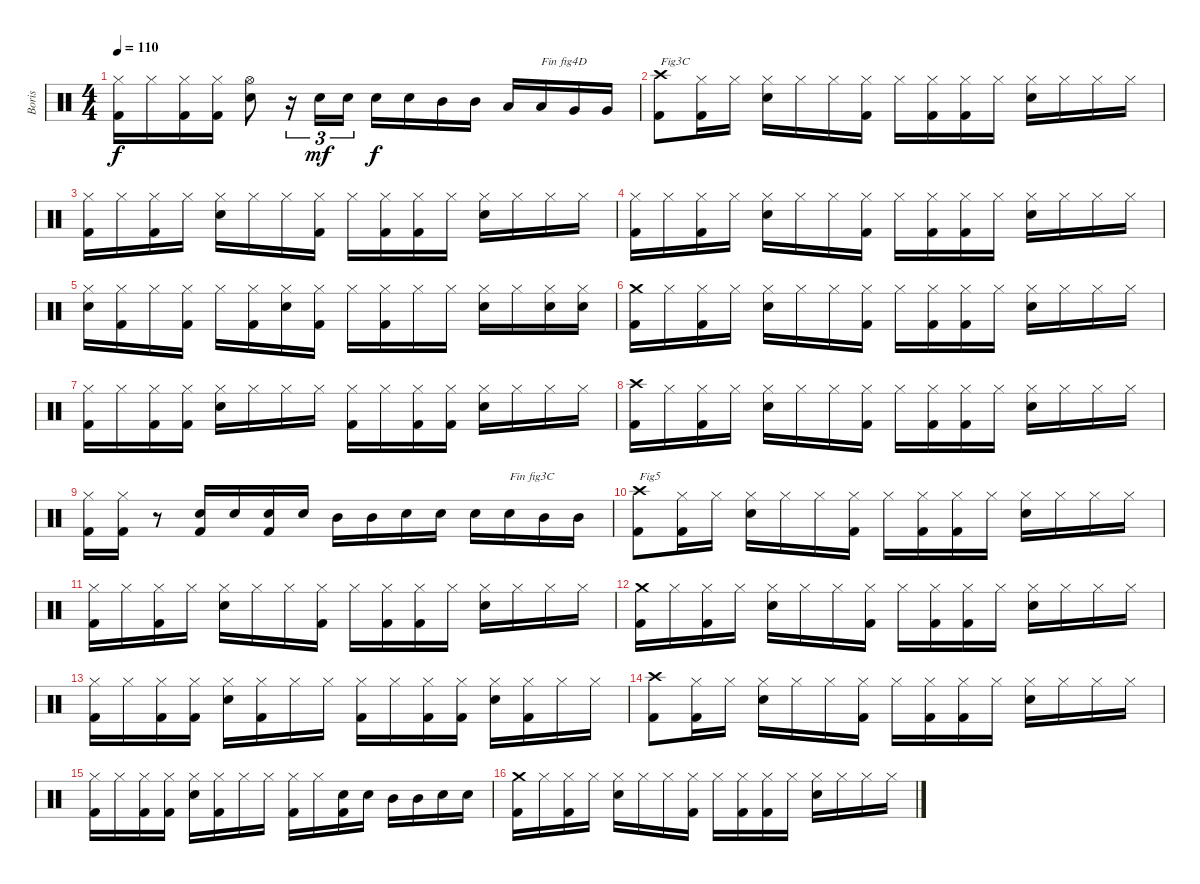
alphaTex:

\track ("Boris" "Boris") {instrument percussion}
\staff {score}
\articulation defaults
\ts (4 4)
\tempo 110
\clef neutral
\ks c
("Kick (hit) 2" "Hi-Hat (closed)").16{dy f} "Hi-Hat (closed)".16 ("Kick (hit) 2" "Hi-Hat (closed)").16 ("Kick (hit) 2" "Hi-Hat (closed)").16 ("Electric Snare (hit)" "Hi-Hat (open)").8 r.16{tu (3 2)} "Electric Snare (hit)".16{tu (3 2) dy mf} "Electric Snare (hit)".16{tu (3 2)} "Electric Snare (hit)".16{dy f} "Electric Snare (hit)".16 "Mid Tom (hit)".16 "Mid Tom (hit)".16 "Low Tom (hit)".16 "Low Tom (hit)".16{txt "Fin fig4D"} "Very Low Tom (hit)".16 "Very Low Tom (hit)".16 |
("Kick (hit) 2" "Crash high (hit)").8{txt "Fig3C"} ("Kick (hit) 2" "Hi-Hat (closed)").16 "Hi-Hat (closed)".16 ("Electric Snare (hit)" "Hi-Hat (closed)").16 "Hi-Hat (closed)".16 "Hi-Hat (closed)".16 ("Kick (hit) 2" "Hi-Hat (closed)").16 "Hi-Hat (closed)".16 ("Kick (hit) 2" "Hi-Hat (closed)").16 ("Kick (hit) 2" "Hi-Hat (closed)").16 "Hi-Hat (closed)".16 ("Electric Snare (hit)" "Hi-Hat (closed)").16 "Hi-Hat (closed)".16 "Hi-Hat (closed)".16 "Hi-Hat (closed)".16 |
("Kick (hit) 2" "Hi-Hat (closed)").16 "Hi-Hat (closed)".16 ("Kick (hit) 2" "Hi-Hat (closed)").16 "Hi-Hat (closed)".16 ("Electric Snare (hit)" "Hi-Hat (closed)").16 "Hi-Hat (closed)".16 "Hi-Hat (closed)".16 ("Kick (hit) 2" "Hi-Hat (closed)").16 "Hi-Hat (closed)".16 ("Kick (hit) 2" "Hi-Hat (closed)").16 ("Kick (hit) 2" "Hi-Hat (closed)").16 "Hi-Hat (closed)".16 ("Electric Snare (hit)" "Hi-Hat (closed)").16 "Hi-Hat (closed)".16 "Hi-Hat (closed)".16 "Hi-Hat (closed)".16 |
("Kick (hit) 2" "Hi-Hat (closed)").16 "Hi-Hat (closed)".16 ("Kick (hit) 2" "Hi-Hat (closed)").16 "Hi-Hat (closed)".16 ("Electric Snare (hit)" "Hi-Hat (closed)").16 "Hi-Hat (closed)".16 "Hi-Hat (closed)".16 ("Kick (hit) 2" "Hi-Hat (closed)").16 "Hi-Hat (closed)".16 ("Kick (hit) 2" "Hi-Hat (closed)").16 ("Kick (hit) 2" "Hi-Hat (closed)").16 "Hi-Hat (closed)".16 ("Electric Snare (hit)" "Hi-Hat (closed)").16 "Hi-Hat (closed)".16 "Hi-Hat (closed)".16 "Hi-Hat (closed)".16 |
("Electric Snare (hit)" "Hi-Hat (closed)").16 ("Kick (hit) 2" "Hi-Hat (closed)").16 "Hi-Hat (closed)".16 ("Kick (hit) 2" "Hi-Hat (closed)").16 "Hi-Hat (closed)".16 ("Kick (hit) 2" "Hi-Hat (closed)").16 ("Electric Snare (hit)" "Hi-Hat (closed)").16 ("Kick (hit) 2" "Hi-Hat (closed)").16 "Hi-Hat (closed)".16 ("Kick (hit) 2" "Hi-Hat (closed)").16 "Hi-Hat (closed)".16 "Hi-Hat (closed)".16 ("Electric Snare (hit)" "Hi-Hat (closed)").16 "Hi-Hat (closed)".16 ("Electric Snare (hit)" "Hi-Hat (closed)").16 ("Electric Snare (hit)" "Hi-Hat (closed)").16 |
("Kick (hit) 2" "Crash medium (hit)").16 "Hi-Hat (closed)".16 ("Kick (hit) 2" "Hi-Hat (closed)").16 "Hi-Hat (closed)".16 ("Electric Snare (hit)" "Hi-Hat (closed)").16 "Hi-Hat (closed)".16 "Hi-Hat (closed)".16 ("Kick (hit) 2" "Hi-Hat (closed)").16 "Hi-Hat (closed)".16 ("Kick (hit) 2" "Hi-Hat (closed)").16 ("Kick (hit) 2" "Hi-Hat (closed)").16 "Hi-Hat (closed)".16 ("Electric Snare (hit)" "Hi-Hat (closed)").16 "Hi-Hat (closed)".16 "Hi-Hat (closed)".16 "Hi-Hat (closed)".16 |
("Kick (hit) 2" "Hi-Hat (closed)").16 "Hi-Hat (closed)".16 ("Kick (hit) 2" "Hi-Hat (closed)").16 ("Kick (hit) 2" "Hi-Hat (closed)").16 ("Electric Snare (hit)" "Hi-Hat (closed)").16 "Hi-Hat (closed)".16 "Hi-Hat (closed)".16 "Hi-Hat (closed)".16 ("Kick (hit) 2" "Hi-Hat (closed)").16 "Hi-Hat (closed)".16 ("Kick (hit) 2" "Hi-Hat (closed)").16 ("Kick (hit) 2" "Hi-Hat (closed)").16 ("Electric Snare (hit)" "Hi-Hat (closed)").16 "Hi-Hat (closed)".16 "Hi-Hat (closed)".16 "Hi-Hat (closed)".16 |
("Kick (hit) 2" "Crash high (hit)").16 "Hi-Hat (closed)".16 ("Kick (hit) 2" "Hi-Hat (closed)").16 "Hi-Hat (closed)".16 ("Electric Snare (hit)" "Hi-Hat (closed)").16 "Hi-Hat (closed)".16 "Hi-Hat (closed)".16 ("Kick (hit) 2" "Hi-Hat (closed)").16 "Hi-Hat (closed)".16 ("Kick (hit) 2" "Hi-Hat (closed)").16 ("Kick (hit) 2" "Hi-Hat (closed)").16 "Hi-Hat (closed)".16 ("Electric Snare (hit)" "Hi-Hat (closed)").16 "Hi-Hat (closed)".16 "Hi-Hat (closed)".16 "Hi-Hat (closed)".16 |
("Kick (hit) 2" "Hi-Hat (closed)").16 ("Kick (hit) 2" "Hi-Hat (closed)").16 r.8 ("Kick (hit) 2" "Electric Snare (hit)").16 "Electric Snare (hit)".16 ("Kick (hit) 2" "Electric Snare (hit)").16 "Electric Snare (hit)".16 "Mid Tom (hit)".16 "Mid Tom (hit)".16 "Electric Snare (hit)".16 "Electric Snare (hit)".16 "Electric Snare (hit)".16 "Electric Snare (hit)".16{txt "Fin fig3C"} "Mid Tom (hit)".16 "Mid Tom (hit)".16 |
("Kick (hit) 2" "Crash high (hit)").8{txt "Fig5"} ("Kick (hit) 2" "Hi-Hat (closed)").16 "Hi-Hat (closed)".16 ("Electric Snare (hit)" "Hi-Hat (closed)").16 "Hi-Hat (closed)".16 "Hi-Hat (closed)".16 ("Kick (hit) 2" "Hi-Hat (closed)").16 "Hi-Hat (closed)".16 ("Kick (hit) 2" "Hi-Hat (closed)").16 ("Kick (hit) 2" "Hi-Hat (closed)").16 "Hi-Hat (closed)".16 ("Electric Snare (hit)" "Hi-Hat (closed)").16 "Hi-Hat (closed)".16 "Hi-Hat (closed)".16 "Hi-Hat (closed)".16 |
("Kick (hit) 2" "Hi-Hat (closed)").16 "Hi-Hat (closed)".16 ("Kick (hit) 2" "Hi-Hat (closed)").16 "Hi-Hat (closed)".16 ("Electric Snare (hit)" "Hi-Hat (closed)").16 "Hi-Hat (closed)".16 "Hi-Hat (closed)".16 ("Kick (hit) 2" "Hi-Hat (closed)").16 "Hi-Hat (closed)".16 ("Kick (hit) 2" "Hi-Hat (closed)").16 ("Kick (hit) 2" "Hi-Hat (closed)").16 "Hi-Hat (closed)".16 ("Electric Snare (hit)" "Hi-Hat (closed)").16 "Hi-Hat (closed)".16 "Hi-Hat (closed)".16 "Hi-Hat (closed)".16 |
("Kick (hit) 2" "Crash medium (hit)").16 "Hi-Hat (closed)".16 ("Kick (hit) 2" "Hi-Hat (closed)").16 "Hi-Hat (closed)".16 ("Electric Snare (hit)" "Hi-Hat (closed)").16 "Hi-Hat (closed)".16 "Hi-Hat (closed)".16 ("Kick (hit) 2" "Hi-Hat (closed)").16 "Hi-Hat (closed)".16 ("Kick (hit) 2" "Hi-Hat (closed)").16 ("Kick (hit) 2" "Hi-Hat (closed)").16 "Hi-Hat (closed)".16 ("Electric Snare (hit)" "Hi-Hat (closed)").16 "Hi-Hat (closed)".16 "Hi-Hat (closed)".16 "Hi-Hat (closed)".16 |
("Kick (hit) 2" "Hi-Hat (closed)").16 "Hi-Hat (closed)".16 ("Kick (hit) 2" "Hi-Hat (closed)").16 ("Kick (hit) 2" "Hi-Hat (closed)").16 ("Electric Snare (hit)" "Hi-Hat (closed)").16 ("Kick (hit) 2" "Hi-Hat (closed)").16 "Hi-Hat (closed)".16 "Hi-Hat (closed)".16 ("Kick (hit) 2" "Hi-Hat (closed)").16 "Hi-Hat (closed)".16 ("Kick (hit) 2" "Hi-Hat (closed)").16 ("Kick (hit) 2" "Hi-Hat (closed)").16 ("Electric Snare (hit)" "Hi-Hat (closed)").16 ("Kick (hit) 2" "Hi-Hat (closed)").16 "Hi-Hat (closed)".16 "Hi-Hat (closed)".16 |
("Kick (hit) 2" "Crash high (hit)").8 ("Kick (hit) 2" "Hi-Hat (closed)").16 "Hi-Hat (closed)".16 ("Electric Snare (hit)" "Hi-Hat (closed)").16 "Hi-Hat (closed)".16 "Hi-Hat (closed)".16 ("Kick (hit) 2" "Hi-Hat (closed)").16 "Hi-Hat (closed)".16 ("Kick (hit) 2" "Hi-Hat (closed)").16 ("Kick (hit) 2" "Hi-Hat (closed)").16 "Hi-Hat (closed)".16 ("Electric Snare (hit)" "Hi-Hat (closed)").16 "Hi-Hat (closed)".16 "Hi-Hat (closed)".16 "Hi-Hat (closed)".16 |
("Kick (hit) 2" "Hi-Hat (closed)").16 "Hi-Hat (closed)".16 ("Kick (hit) 2" "Hi-Hat (closed)").16 ("Kick (hit) 2" "Hi-Hat (closed)").16 ("Electric Snare (hit)" "Hi-Hat (closed)").16 ("Kick (hit) 2" "Hi-Hat (closed)").16 "Hi-Hat (closed)".16 "Hi-Hat (closed)".16 ("Kick (hit) 2" "Hi-Hat (closed)").16 "Hi-Hat (closed)".16 ("Kick (hit) 2" "Electric Snare (hit)").16 "Electric Snare (hit)".16 "Mid Tom (hit)".16 "Mid Tom (hit)".16 "Electric Snare (hit)".16 "Electric Snare (hit)".16 |
("Kick (hit) 2" "Crash medium (hit)").16 "Hi-Hat (closed)".16 ("Kick (hit) 2" "Hi-Hat (closed)").16 "Hi-Hat (closed)".16 ("Electric Snare (hit)" "Hi-Hat (closed)").16 "Hi-Hat (closed)".16 "Hi-Hat (closed)".16 ("Kick (hit) 2" "Hi-Hat (closed)").16 "Hi-Hat (closed)".16 ("Kick (hit) 2" "Hi-Hat (closed)").16 ("Kick (hit) 2" "Hi-Hat (closed)").16 "Hi-Hat (closed)".16 ("Electric Snare (hit)" "Hi-Hat (closed)").16 "Hi-Hat (closed)".16 "Hi-Hat (closed)".16 "Hi-Hat (closed)".16
